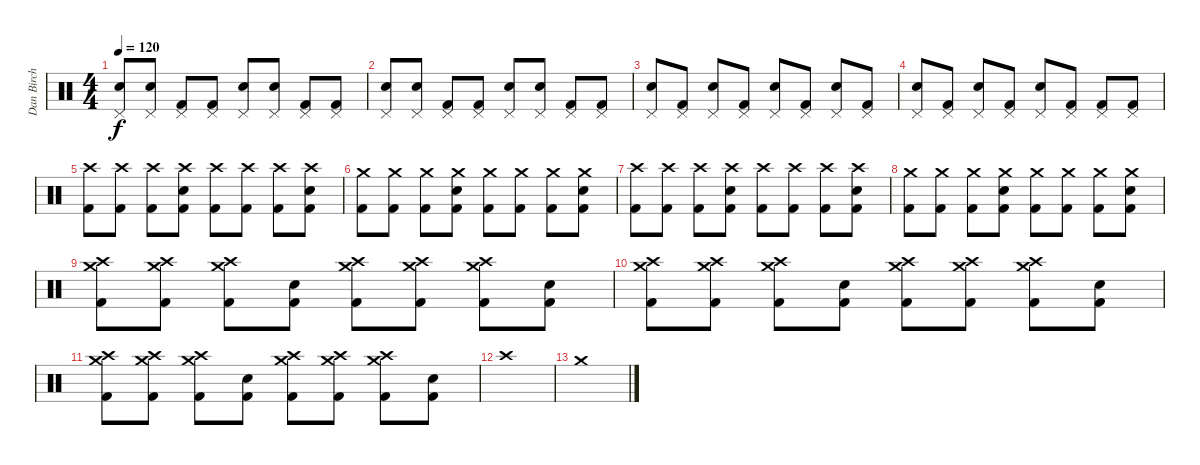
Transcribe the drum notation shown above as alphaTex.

\track ("Dan Birch" "Dan Birch") {instrument percussion}
\staff {score}
\articulation defaults
\ts (4 4)
\tempo 120
\clef neutral
\ks c
("Pedal Hi-Hat (hit)" "Snare (hit) 2").8{dy f} ("Pedal Hi-Hat (hit)" "Snare (hit) 2").8 ("Pedal Hi-Hat (hit)" "Kick (hit) 2").8 ("Pedal Hi-Hat (hit)" "Kick (hit) 2").8 ("Pedal Hi-Hat (hit)" "Snare (hit) 2").8 ("Pedal Hi-Hat (hit)" "Snare (hit) 2").8 ("Pedal Hi-Hat (hit)" "Kick (hit) 2").8 ("Pedal Hi-Hat (hit)" "Kick (hit) 2").8 |
("Pedal Hi-Hat (hit)" "Snare (hit) 2").8 ("Pedal Hi-Hat (hit)" "Snare (hit) 2").8 ("Pedal Hi-Hat (hit)" "Kick (hit) 2").8 ("Pedal Hi-Hat (hit)" "Kick (hit) 2").8 ("Pedal Hi-Hat (hit)" "Snare (hit) 2").8 ("Pedal Hi-Hat (hit)" "Snare (hit) 2").8 ("Pedal Hi-Hat (hit)" "Kick (hit) 2").8 ("Pedal Hi-Hat (hit)" "Kick (hit) 2").8 |
("Pedal Hi-Hat (hit)" "Snare (hit) 2").8 ("Pedal Hi-Hat (hit)" "Kick (hit) 2").8 ("Pedal Hi-Hat (hit)" "Snare (hit) 2").8 ("Pedal Hi-Hat (hit)" "Kick (hit) 2").8 ("Pedal Hi-Hat (hit)" "Snare (hit) 2").8 ("Pedal Hi-Hat (hit)" "Kick (hit) 2").8 ("Pedal Hi-Hat (hit)" "Snare (hit) 2").8 ("Pedal Hi-Hat (hit)" "Kick (hit) 2").8 |
("Pedal Hi-Hat (hit)" "Snare (hit) 2").8 ("Pedal Hi-Hat (hit)" "Kick (hit) 2").8 ("Pedal Hi-Hat (hit)" "Snare (hit) 2").8 ("Pedal Hi-Hat (hit)" "Kick (hit) 2").8 ("Pedal Hi-Hat (hit)" "Snare (hit) 2").8 ("Pedal Hi-Hat (hit)" "Kick (hit) 2").8 ("Pedal Hi-Hat (hit)" "Kick (hit) 2").8 ("Pedal Hi-Hat (hit)" "Kick (hit) 2").8 |
("Crash high (hit)" "Kick (hit) 2").8 ("Crash high (hit)" "Kick (hit) 2").8 ("Crash high (hit)" "Kick (hit) 2").8 ("Crash high (hit)" "Snare (hit) 2" "Kick (hit) 2").8 ("Crash high (hit)" "Kick (hit) 2").8 ("Crash high (hit)" "Kick (hit) 2").8 ("Crash high (hit)" "Kick (hit) 2").8 ("Crash high (hit)" "Snare (hit) 2" "Kick (hit) 2").8 |
("Crash medium (hit)" "Kick (hit) 2").8 ("Crash medium (hit)" "Kick (hit) 2").8 ("Crash medium (hit)" "Kick (hit) 2").8 ("Crash medium (hit)" "Snare (hit) 2" "Kick (hit) 2").8 ("Crash medium (hit)" "Kick (hit) 2").8 ("Crash medium (hit)" "Kick (hit) 2").8 ("Crash medium (hit)" "Kick (hit) 2").8 ("Crash medium (hit)" "Snare (hit) 2" "Kick (hit) 2").8 |
("Crash high (hit)" "Kick (hit) 2").8 ("Crash high (hit)" "Kick (hit) 2").8 ("Crash high (hit)" "Kick (hit) 2").8 ("Crash high (hit)" "Snare (hit) 2" "Kick (hit) 2").8 ("Crash high (hit)" "Kick (hit) 2").8 ("Crash high (hit)" "Kick (hit) 2").8 ("Crash high (hit)" "Kick (hit) 2").8 ("Crash high (hit)" "Snare (hit) 2" "Kick (hit) 2").8 |
("Crash medium (hit)" "Kick (hit) 2").8 ("Crash medium (hit)" "Kick (hit) 2").8 ("Crash medium (hit)" "Kick (hit) 2").8 ("Crash medium (hit)" "Snare (hit) 2" "Kick (hit) 2").8 ("Crash medium (hit)" "Kick (hit) 2").8 ("Crash medium (hit)" "Kick (hit) 2").8 ("Crash medium (hit)" "Kick (hit) 2").8 ("Crash medium (hit)" "Snare (hit) 2" "Kick (hit) 2").8 |
("Crash medium (hit)" "Crash high (hit)" "Kick (hit) 2").8 ("Crash medium (hit)" "Crash high (hit)" "Kick (hit) 2").8 ("Crash medium (hit)" "Crash high (hit)" "Kick (hit) 2").8 ("Snare (hit) 2" "Kick (hit) 2").8 ("Crash medium (hit)" "Crash high (hit)" "Kick (hit) 2").8 ("Crash medium (hit)" "Crash high (hit)" "Kick (hit) 2").8 ("Crash medium (hit)" "Crash high (hit)" "Kick (hit) 2").8 ("Snare (hit) 2" "Kick (hit) 2").8 |
("Crash medium (hit)" "Crash high (hit)" "Kick (hit) 2").8 ("Crash medium (hit)" "Crash high (hit)" "Kick (hit) 2").8 ("Crash medium (hit)" "Crash high (hit)" "Kick (hit) 2").8 ("Snare (hit) 2" "Kick (hit) 2").8 ("Crash medium (hit)" "Crash high (hit)" "Kick (hit) 2").8 ("Crash medium (hit)" "Crash high (hit)" "Kick (hit) 2").8 ("Crash medium (hit)" "Crash high (hit)" "Kick (hit) 2").8 ("Snare (hit) 2" "Kick (hit) 2").8 |
("Crash medium (hit)" "Crash high (hit)" "Kick (hit) 2").8 ("Crash medium (hit)" "Crash high (hit)" "Kick (hit) 2").8 ("Crash medium (hit)" "Crash high (hit)" "Kick (hit) 2").8 ("Snare (hit) 2" "Kick (hit) 2").8 ("Crash medium (hit)" "Crash high (hit)" "Kick (hit) 2").8 ("Crash medium (hit)" "Crash high (hit)" "Kick (hit) 2").8 ("Crash medium (hit)" "Crash high (hit)" "Kick (hit) 2").8 ("Snare (hit) 2" "Kick (hit) 2").8 |
"Crash high (hit)".1 |
"Crash medium (hit)".1
